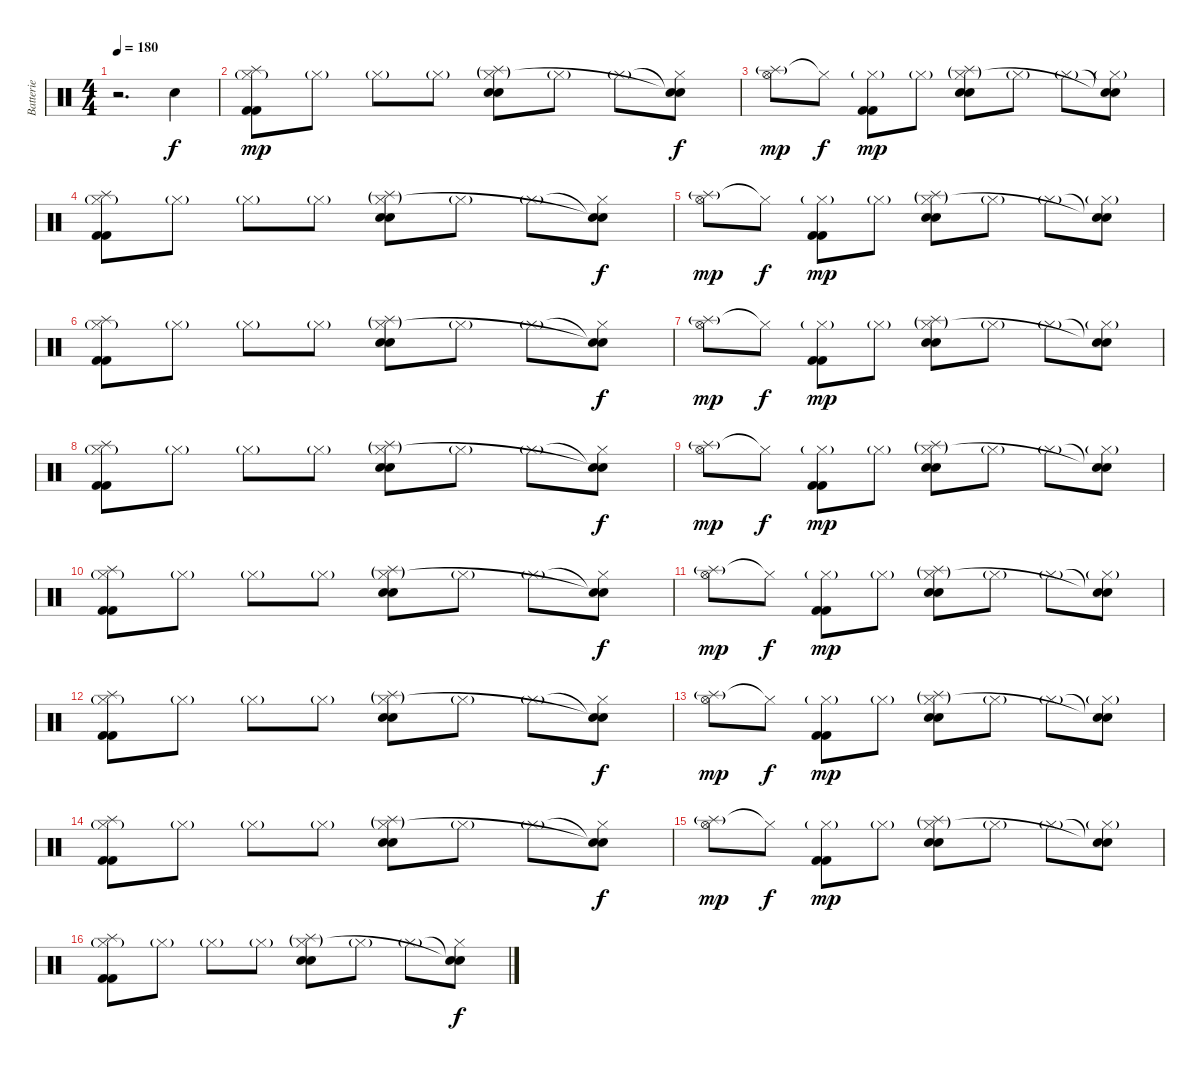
\track ("Batterie" "Batterie") {instrument percussion}
\staff {score}
\articulation defaults
\ts (4 4)
\tempo 180
\clef neutral
\ks c
r.2{d dy f} "Electric Snare (hit)".4 |
("Splash (hit)" "Hi-Hat (closed)"{g} "Kick (hit) 2" "Kick (hit) 2").8{dy mp} "Hi-Hat (closed)"{g}.8 "Hi-Hat (closed)"{g}.8 "Hi-Hat (closed)"{g}.8 ("Splash (hit)"{g} "Hi-Hat (closed)"{g} "Electric Snare (hit)" "Snare (hit) 2").8 "Hi-Hat (closed)"{g}.8 "Hi-Hat (closed)"{g}.8 ("Snare (hit)"{t} "Snare (hit)"{t} "Hi-Hat (closed)").8{dy f} |
("Splash (hit)"{g} "Hi-Hat (open)").8{dy mp} "Hi-Hat (closed)"{t}.8{dy f} ("Hi-Hat (closed)"{g} "Kick (hit) 2" "Kick (hit) 2").8{dy mp} "Hi-Hat (closed)"{g}.8 ("Splash (hit)"{g} "Hi-Hat (closed)"{g} "Electric Snare (hit)" "Snare (hit) 2").8 "Hi-Hat (closed)"{g}.8 "Hi-Hat (closed)"{g}.8 ("Snare (hit)"{t} "Snare (hit)"{t} "Hi-Hat (closed)"{g}).8 |
("Splash (hit)" "Hi-Hat (closed)"{g} "Kick (hit) 2" "Kick (hit) 2").8 "Hi-Hat (closed)"{g}.8 "Hi-Hat (closed)"{g}.8 "Hi-Hat (closed)"{g}.8 ("Splash (hit)"{g} "Hi-Hat (closed)"{g} "Electric Snare (hit)" "Snare (hit) 2").8 "Hi-Hat (closed)"{g}.8 "Hi-Hat (closed)"{g}.8 ("Snare (hit)"{t} "Snare (hit)"{t} "Hi-Hat (closed)").8{dy f} |
("Splash (hit)"{g} "Hi-Hat (open)").8{dy mp} "Hi-Hat (closed)"{t}.8{dy f} ("Hi-Hat (closed)"{g} "Kick (hit) 2" "Kick (hit) 2").8{dy mp} "Hi-Hat (closed)"{g}.8 ("Splash (hit)"{g} "Hi-Hat (closed)"{g} "Electric Snare (hit)" "Snare (hit) 2").8 "Hi-Hat (closed)"{g}.8 "Hi-Hat (closed)"{g}.8 ("Snare (hit)"{t} "Snare (hit)"{t} "Hi-Hat (closed)"{g}).8 |
("Splash (hit)" "Hi-Hat (closed)"{g} "Kick (hit) 2" "Kick (hit) 2").8 "Hi-Hat (closed)"{g}.8 "Hi-Hat (closed)"{g}.8 "Hi-Hat (closed)"{g}.8 ("Splash (hit)"{g} "Hi-Hat (closed)"{g} "Electric Snare (hit)" "Snare (hit) 2").8 "Hi-Hat (closed)"{g}.8 "Hi-Hat (closed)"{g}.8 ("Snare (hit)"{t} "Snare (hit)"{t} "Hi-Hat (closed)").8{dy f} |
("Splash (hit)"{g} "Hi-Hat (open)").8{dy mp} "Hi-Hat (closed)"{t}.8{dy f} ("Hi-Hat (closed)"{g} "Kick (hit) 2" "Kick (hit) 2").8{dy mp} "Hi-Hat (closed)"{g}.8 ("Splash (hit)"{g} "Hi-Hat (closed)"{g} "Electric Snare (hit)" "Snare (hit) 2").8 "Hi-Hat (closed)"{g}.8 "Hi-Hat (closed)"{g}.8 ("Snare (hit)"{t} "Snare (hit)"{t} "Hi-Hat (closed)"{g}).8 |
("Splash (hit)" "Hi-Hat (closed)"{g} "Kick (hit) 2" "Kick (hit) 2").8 "Hi-Hat (closed)"{g}.8 "Hi-Hat (closed)"{g}.8 "Hi-Hat (closed)"{g}.8 ("Splash (hit)"{g} "Hi-Hat (closed)"{g} "Electric Snare (hit)" "Snare (hit) 2").8 "Hi-Hat (closed)"{g}.8 "Hi-Hat (closed)"{g}.8 ("Snare (hit)"{t} "Snare (hit)"{t} "Hi-Hat (closed)").8{dy f} |
("Splash (hit)"{g} "Hi-Hat (open)").8{dy mp} "Hi-Hat (closed)"{t}.8{dy f} ("Hi-Hat (closed)"{g} "Kick (hit) 2" "Kick (hit) 2").8{dy mp} "Hi-Hat (closed)"{g}.8 ("Splash (hit)"{g} "Hi-Hat (closed)"{g} "Electric Snare (hit)" "Snare (hit) 2").8 "Hi-Hat (closed)"{g}.8 "Hi-Hat (closed)"{g}.8 ("Snare (hit)"{t} "Snare (hit)"{t} "Hi-Hat (closed)"{g}).8 |
("Splash (hit)" "Hi-Hat (closed)"{g} "Kick (hit) 2" "Kick (hit) 2").8 "Hi-Hat (closed)"{g}.8 "Hi-Hat (closed)"{g}.8 "Hi-Hat (closed)"{g}.8 ("Splash (hit)"{g} "Hi-Hat (closed)"{g} "Electric Snare (hit)" "Snare (hit) 2").8 "Hi-Hat (closed)"{g}.8 "Hi-Hat (closed)"{g}.8 ("Snare (hit)"{t} "Snare (hit)"{t} "Hi-Hat (closed)").8{dy f} |
("Splash (hit)"{g} "Hi-Hat (open)").8{dy mp} "Hi-Hat (closed)"{t}.8{dy f} ("Hi-Hat (closed)"{g} "Kick (hit) 2" "Kick (hit) 2").8{dy mp} "Hi-Hat (closed)"{g}.8 ("Splash (hit)"{g} "Hi-Hat (closed)"{g} "Electric Snare (hit)" "Snare (hit) 2").8 "Hi-Hat (closed)"{g}.8 "Hi-Hat (closed)"{g}.8 ("Snare (hit)"{t} "Snare (hit)"{t} "Hi-Hat (closed)"{g}).8 |
("Splash (hit)" "Hi-Hat (closed)"{g} "Kick (hit) 2" "Kick (hit) 2").8 "Hi-Hat (closed)"{g}.8 "Hi-Hat (closed)"{g}.8 "Hi-Hat (closed)"{g}.8 ("Splash (hit)"{g} "Hi-Hat (closed)"{g} "Electric Snare (hit)" "Snare (hit) 2").8 "Hi-Hat (closed)"{g}.8 "Hi-Hat (closed)"{g}.8 ("Snare (hit)"{t} "Snare (hit)"{t} "Hi-Hat (closed)").8{dy f} |
("Splash (hit)"{g} "Hi-Hat (open)").8{dy mp} "Hi-Hat (closed)"{t}.8{dy f} ("Hi-Hat (closed)"{g} "Kick (hit) 2" "Kick (hit) 2").8{dy mp} "Hi-Hat (closed)"{g}.8 ("Splash (hit)"{g} "Hi-Hat (closed)"{g} "Electric Snare (hit)" "Snare (hit) 2").8 "Hi-Hat (closed)"{g}.8 "Hi-Hat (closed)"{g}.8 ("Snare (hit)"{t} "Snare (hit)"{t} "Hi-Hat (closed)"{g}).8 |
("Splash (hit)" "Hi-Hat (closed)"{g} "Kick (hit) 2" "Kick (hit) 2").8 "Hi-Hat (closed)"{g}.8 "Hi-Hat (closed)"{g}.8 "Hi-Hat (closed)"{g}.8 ("Splash (hit)"{g} "Hi-Hat (closed)"{g} "Electric Snare (hit)" "Snare (hit) 2").8 "Hi-Hat (closed)"{g}.8 "Hi-Hat (closed)"{g}.8 ("Snare (hit)"{t} "Snare (hit)"{t} "Hi-Hat (closed)").8{dy f} |
("Splash (hit)"{g} "Hi-Hat (open)").8{dy mp} "Hi-Hat (closed)"{t}.8{dy f} ("Hi-Hat (closed)"{g} "Kick (hit) 2" "Kick (hit) 2").8{dy mp} "Hi-Hat (closed)"{g}.8 ("Splash (hit)"{g} "Hi-Hat (closed)"{g} "Electric Snare (hit)" "Snare (hit) 2").8 "Hi-Hat (closed)"{g}.8 "Hi-Hat (closed)"{g}.8 ("Snare (hit)"{t} "Snare (hit)"{t} "Hi-Hat (closed)"{g}).8 |
("Splash (hit)" "Hi-Hat (closed)"{g} "Kick (hit) 2" "Kick (hit) 2").8 "Hi-Hat (closed)"{g}.8 "Hi-Hat (closed)"{g}.8 "Hi-Hat (closed)"{g}.8 ("Splash (hit)"{g} "Hi-Hat (closed)"{g} "Electric Snare (hit)" "Snare (hit) 2").8 "Hi-Hat (closed)"{g}.8 "Hi-Hat (closed)"{g}.8 ("Snare (hit)"{t} "Snare (hit)"{t} "Hi-Hat (closed)").8{dy f}
